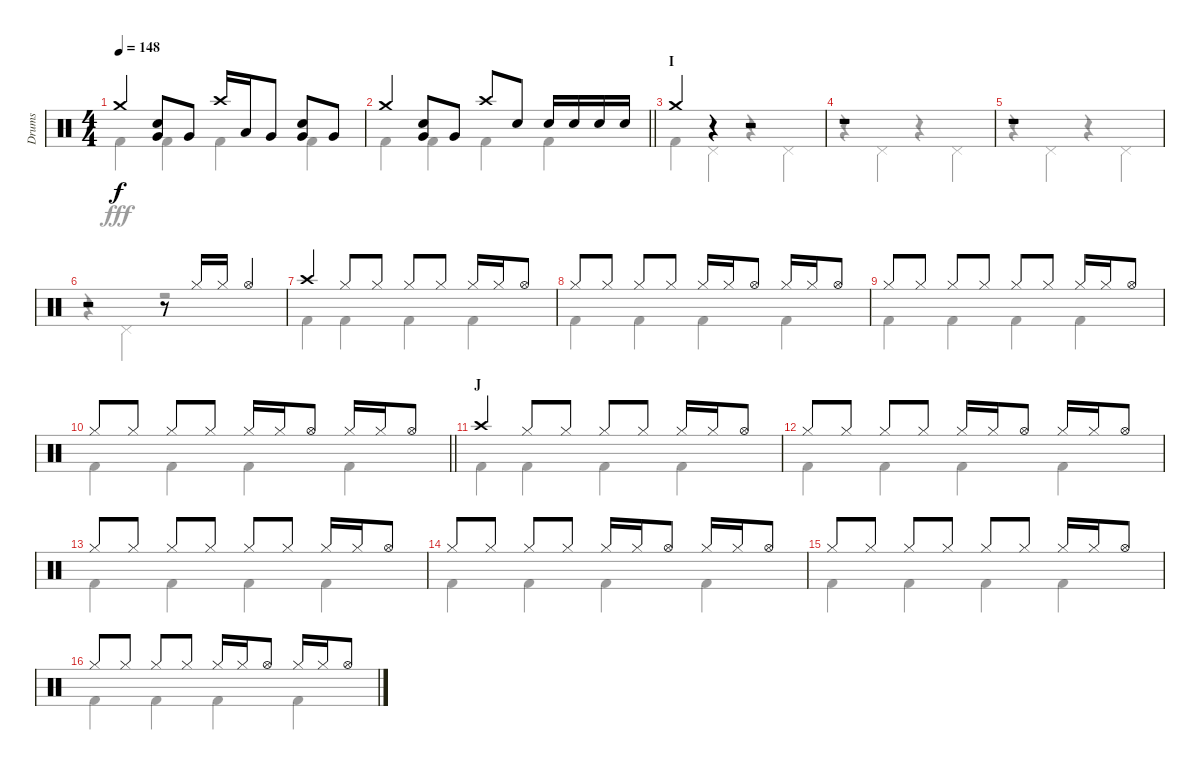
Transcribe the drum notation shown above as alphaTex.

\track ("Drums" "Drums") {instrument percussion}
\staff {score}
\articulation defaults
\voice
\ts (4 4)
\tempo 148
\clef neutral
\ks c "Crash medium (hit)".4{dy f}
("Snare (hit) 2" "Very Low Tom (hit)").8 "Very Low Tom (hit)".8 "Crash high (hit)".16 "Low Tom (hit)".16 "Very Low Tom (hit)".8 ("Snare (hit) 2" "Very Low Tom (hit)").8 "Very Low Tom (hit)".8 |
\barLineRight lightlight "Crash medium (hit)".4
("Snare (hit) 2" "Very Low Tom (hit)").8 "Very Low Tom (hit)".8 "Crash high (hit)".8 "Snare (hit) 2".8 "Snare (hit) 2".16 "Snare (hit) 2".16 "Snare (hit) 2".16 "Snare (hit) 2".16 |
\section ("" "I")
"Crash medium (hit)".4 r.4 r.2 |
r.1 |
r.1 |
r.2 r.8 "Hi-Hat (closed)".16 "Hi-Hat (closed)".16 "Hi-Hat (open)".4 |
"Crash high (hit)".4 "Hi-Hat (closed)".8 "Hi-Hat (closed)".8 "Hi-Hat (closed)".8 "Hi-Hat (closed)".8 "Hi-Hat (closed)".16 "Hi-Hat (closed)".16 "Hi-Hat (open)".8 |
"Hi-Hat (closed)".8 "Hi-Hat (closed)".8 "Hi-Hat (closed)".8 "Hi-Hat (closed)".8 "Hi-Hat (closed)".16 "Hi-Hat (closed)".16 "Hi-Hat (open)".8 "Hi-Hat (closed)".16 "Hi-Hat (closed)".16 "Hi-Hat (open)".8 |
"Hi-Hat (closed)".8 "Hi-Hat (closed)".8 "Hi-Hat (closed)".8 "Hi-Hat (closed)".8 "Hi-Hat (closed)".8 "Hi-Hat (closed)".8 "Hi-Hat (closed)".16 "Hi-Hat (closed)".16 "Hi-Hat (open)".8 |
\barLineRight lightlight "Hi-Hat (closed)".8 "Hi-Hat (closed)".8 "Hi-Hat (closed)".8 "Hi-Hat (closed)".8 "Hi-Hat (closed)".16 "Hi-Hat (closed)".16 "Hi-Hat (open)".8 "Hi-Hat (closed)".16 "Hi-Hat (closed)".16 "Hi-Hat (open)".8
|
\section ("" "J")
"Crash high (hit)".4 "Hi-Hat (closed)".8 "Hi-Hat (closed)".8 "Hi-Hat (closed)".8 "Hi-Hat (closed)".8 "Hi-Hat (closed)".16 "Hi-Hat (closed)".16 "Hi-Hat (open)".8 |
"Hi-Hat (closed)".8 "Hi-Hat (closed)".8 "Hi-Hat (closed)".8 "Hi-Hat (closed)".8 "Hi-Hat (closed)".16 "Hi-Hat (closed)".16 "Hi-Hat (open)".8 "Hi-Hat (closed)".16 "Hi-Hat (closed)".16 "Hi-Hat (open)".8 |
"Hi-Hat (closed)".8 "Hi-Hat (closed)".8 "Hi-Hat (closed)".8 "Hi-Hat (closed)".8 "Hi-Hat (closed)".8 "Hi-Hat (closed)".8 "Hi-Hat (closed)".16 "Hi-Hat (closed)".16 "Hi-Hat (open)".8 |
"Hi-Hat (closed)".8 "Hi-Hat (closed)".8 "Hi-Hat (closed)".8 "Hi-Hat (closed)".8 "Hi-Hat (closed)".16 "Hi-Hat (closed)".16 "Hi-Hat (open)".8 "Hi-Hat (closed)".16 "Hi-Hat (closed)".16 "Hi-Hat (open)".8 |
"Hi-Hat (closed)".8 "Hi-Hat (closed)".8 "Hi-Hat (closed)".8 "Hi-Hat (closed)".8 "Hi-Hat (closed)".8 "Hi-Hat (closed)".8 "Hi-Hat (closed)".16 "Hi-Hat (closed)".16 "Hi-Hat (open)".8 |
"Hi-Hat (closed)".8 "Hi-Hat (closed)".8 "Hi-Hat (closed)".8 "Hi-Hat (closed)".8 "Hi-Hat (closed)".16 "Hi-Hat (closed)".16 "Hi-Hat (open)".8 "Hi-Hat (closed)".16 "Hi-Hat (closed)".16 "Hi-Hat (open)".8
\voice
\clef neutral
\ottava regular
\simile none
\ks c "Kick (hit) 2".4{dy fff} "Kick (hit) 2".4 "Kick (hit) 2".4 "Kick (hit) 2".4
|
\barLineRight lightlight "Kick (hit) 2".4 "Kick (hit) 2".4 "Kick (hit) 2".4 "Kick (hit) 2".4
|
"Kick (hit) 2".4 "Pedal Hi-Hat (hit)".4 r.4 "Pedal Hi-Hat (hit)".4 |
r.4 "Pedal Hi-Hat (hit)".4 r.4 "Pedal Hi-Hat (hit)".4 |
r.4 "Pedal Hi-Hat (hit)".4 r.4 "Pedal Hi-Hat (hit)".4 |
r.4 "Pedal Hi-Hat (hit)".4 r.2 |
"Kick (hit) 2".4 "Kick (hit) 2".4 "Kick (hit) 2".4 "Kick (hit) 2".4 |
"Kick (hit) 2".4 "Kick (hit) 2".4 "Kick (hit) 2".4 "Kick (hit) 2".4 |
"Kick (hit) 2".4 "Kick (hit) 2".4 "Kick (hit) 2".4 "Kick (hit) 2".4 |
\barLineRight lightlight "Kick (hit) 2".4 "Kick (hit) 2".4 "Kick (hit) 2".4 "Kick (hit) 2".4
|
"Kick (hit) 2".4 "Kick (hit) 2".4 "Kick (hit) 2".4 "Kick (hit) 2".4 |
"Kick (hit) 2".4 "Kick (hit) 2".4 "Kick (hit) 2".4 "Kick (hit) 2".4 |
"Kick (hit) 2".4 "Kick (hit) 2".4 "Kick (hit) 2".4 "Kick (hit) 2".4 |
"Kick (hit) 2".4 "Kick (hit) 2".4 "Kick (hit) 2".4 "Kick (hit) 2".4 |
"Kick (hit) 2".4 "Kick (hit) 2".4 "Kick (hit) 2".4 "Kick (hit) 2".4 |
"Kick (hit) 2".4 "Kick (hit) 2".4 "Kick (hit) 2".4 "Kick (hit) 2".4
